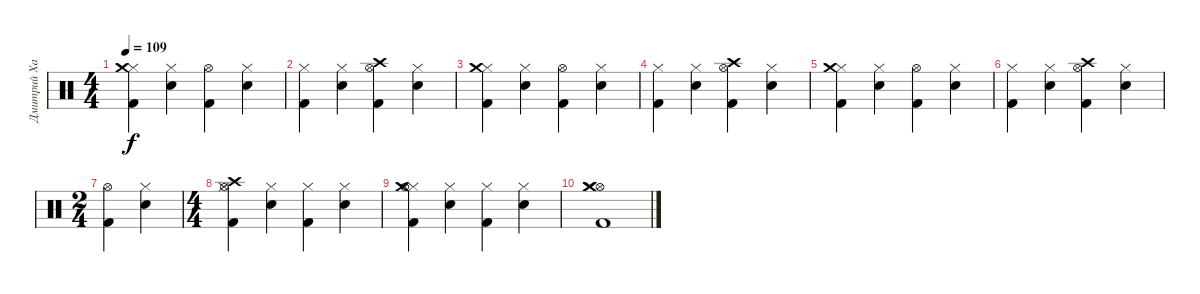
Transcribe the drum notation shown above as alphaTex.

\track ("Дмитрий Хакимов" "Дмитрий Ха") {instrument percussion}
\staff {score}
\articulation defaults
\ts (4 4)
\tempo 109
\clef neutral
\ks c
("Hi-Hat (closed)" "Kick (hit) 2" "Crash medium (hit)").4{dy f} ("Hi-Hat (closed)" "Snare (hit) 2").4 ("Hi-Hat (open)" "Kick (hit) 2").4 ("Hi-Hat (closed)" "Snare (hit) 2").4 |
("Hi-Hat (closed)" "Kick (hit) 2").4 ("Hi-Hat (closed)" "Snare (hit) 2").4 ("Hi-Hat (open)" "Crash high (hit)" "Kick (hit) 2").4 ("Hi-Hat (closed)" "Snare (hit) 2").4 |
("Hi-Hat (closed)" "Kick (hit) 2" "Crash medium (hit)").4 ("Hi-Hat (closed)" "Snare (hit) 2").4 ("Hi-Hat (open)" "Kick (hit) 2").4 ("Hi-Hat (closed)" "Snare (hit) 2").4 |
("Hi-Hat (closed)" "Kick (hit) 2").4 ("Hi-Hat (closed)" "Snare (hit) 2").4 ("Hi-Hat (open)" "Crash high (hit)" "Kick (hit) 2").4 ("Hi-Hat (closed)" "Snare (hit) 2").4 |
("Hi-Hat (closed)" "Kick (hit) 2" "Crash medium (hit)").4 ("Hi-Hat (closed)" "Snare (hit) 2").4 ("Hi-Hat (open)" "Kick (hit) 2").4 ("Hi-Hat (closed)" "Snare (hit) 2").4 |
("Hi-Hat (closed)" "Kick (hit) 2").4 ("Hi-Hat (closed)" "Snare (hit) 2").4 ("Hi-Hat (open)" "Crash high (hit)" "Kick (hit) 2").4 ("Hi-Hat (closed)" "Snare (hit) 2").4 |
\ts (2 4)
("Hi-Hat (open)" "Kick (hit) 2").4 ("Hi-Hat (closed)" "Snare (hit) 2").4 |
\ts (4 4)
("Hi-Hat (closed)" "Hi-Hat (open)" "Kick (hit) 2" "Crash high (hit)").4 ("Hi-Hat (closed)" "Snare (hit) 2").4 ("Hi-Hat (closed)" "Kick (hit) 2").4 ("Hi-Hat (closed)" "Snare (hit) 2").4 |
("Hi-Hat (closed)" "Hi-Hat (open)" "Kick (hit) 2" "Crash medium (hit)").4 ("Hi-Hat (closed)" "Snare (hit) 2").4 ("Hi-Hat (closed)" "Kick (hit) 2").4 ("Hi-Hat (closed)" "Snare (hit) 2").4 |
("Hi-Hat (open)" "Kick (hit) 2" "Crash medium (hit)" "Crash medium (hit)").1
